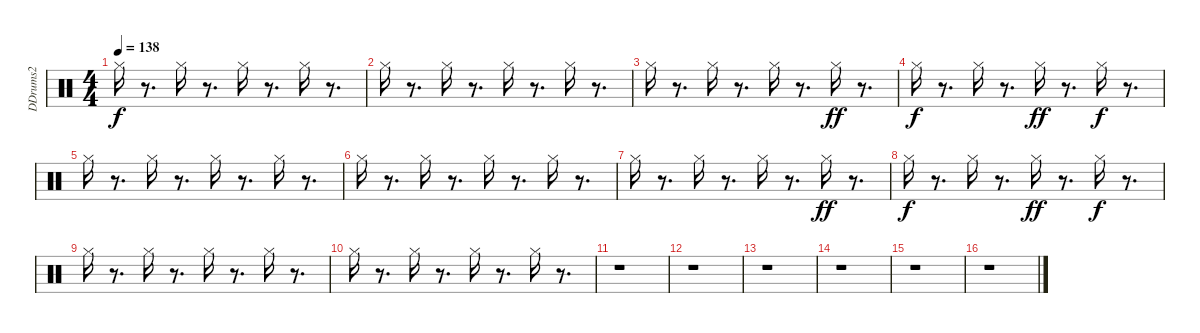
\track ("DDrums2" "DDrums2") {instrument percussion}
\staff {score}
\articulation defaults
\ts (4 4)
\tempo 138
\clef neutral
\ks c "Hi-Hat (closed)".16{dy f}
r.8{d} "Hi-Hat (closed)".16 r.8{d} "Hi-Hat (closed)".16 r.8{d} "Hi-Hat (closed)".16 r.8{d} |
"Hi-Hat (closed)".16 r.8{d} "Hi-Hat (closed)".16 r.8{d} "Hi-Hat (closed)".16 r.8{d} "Hi-Hat (closed)".16 r.8{d} |
"Hi-Hat (closed)".16 r.8{d} "Hi-Hat (closed)".16 r.8{d} "Hi-Hat (closed)".16 r.8{d} "Hi-Hat (closed)".16{dy ff} r.8{d} |
"Hi-Hat (closed)".16{dy f} r.8{d} "Hi-Hat (closed)".16 r.8{d} "Hi-Hat (closed)".16{dy ff} r.8{d} "Hi-Hat (closed)".16{dy f} r.8{d} |
"Hi-Hat (closed)".16 r.8{d} "Hi-Hat (closed)".16 r.8{d} "Hi-Hat (closed)".16 r.8{d} "Hi-Hat (closed)".16 r.8{d} |
"Hi-Hat (closed)".16 r.8{d} "Hi-Hat (closed)".16 r.8{d} "Hi-Hat (closed)".16 r.8{d} "Hi-Hat (closed)".16 r.8{d} |
"Hi-Hat (closed)".16 r.8{d} "Hi-Hat (closed)".16 r.8{d} "Hi-Hat (closed)".16 r.8{d} "Hi-Hat (closed)".16{dy ff} r.8{d} |
"Hi-Hat (closed)".16{dy f} r.8{d} "Hi-Hat (closed)".16 r.8{d} "Hi-Hat (closed)".16{dy ff} r.8{d} "Hi-Hat (closed)".16{dy f} r.8{d} |
"Hi-Hat (closed)".16 r.8{d} "Hi-Hat (closed)".16 r.8{d} "Hi-Hat (closed)".16 r.8{d} "Hi-Hat (closed)".16 r.8{d} |
"Hi-Hat (closed)".16 r.8{d} "Hi-Hat (closed)".16 r.8{d} "Hi-Hat (closed)".16 r.8{d} "Hi-Hat (closed)".16 r.8{d} |
r.1 |
r.1 |
r.1 |
r.1 |
r.1 |
r.1
